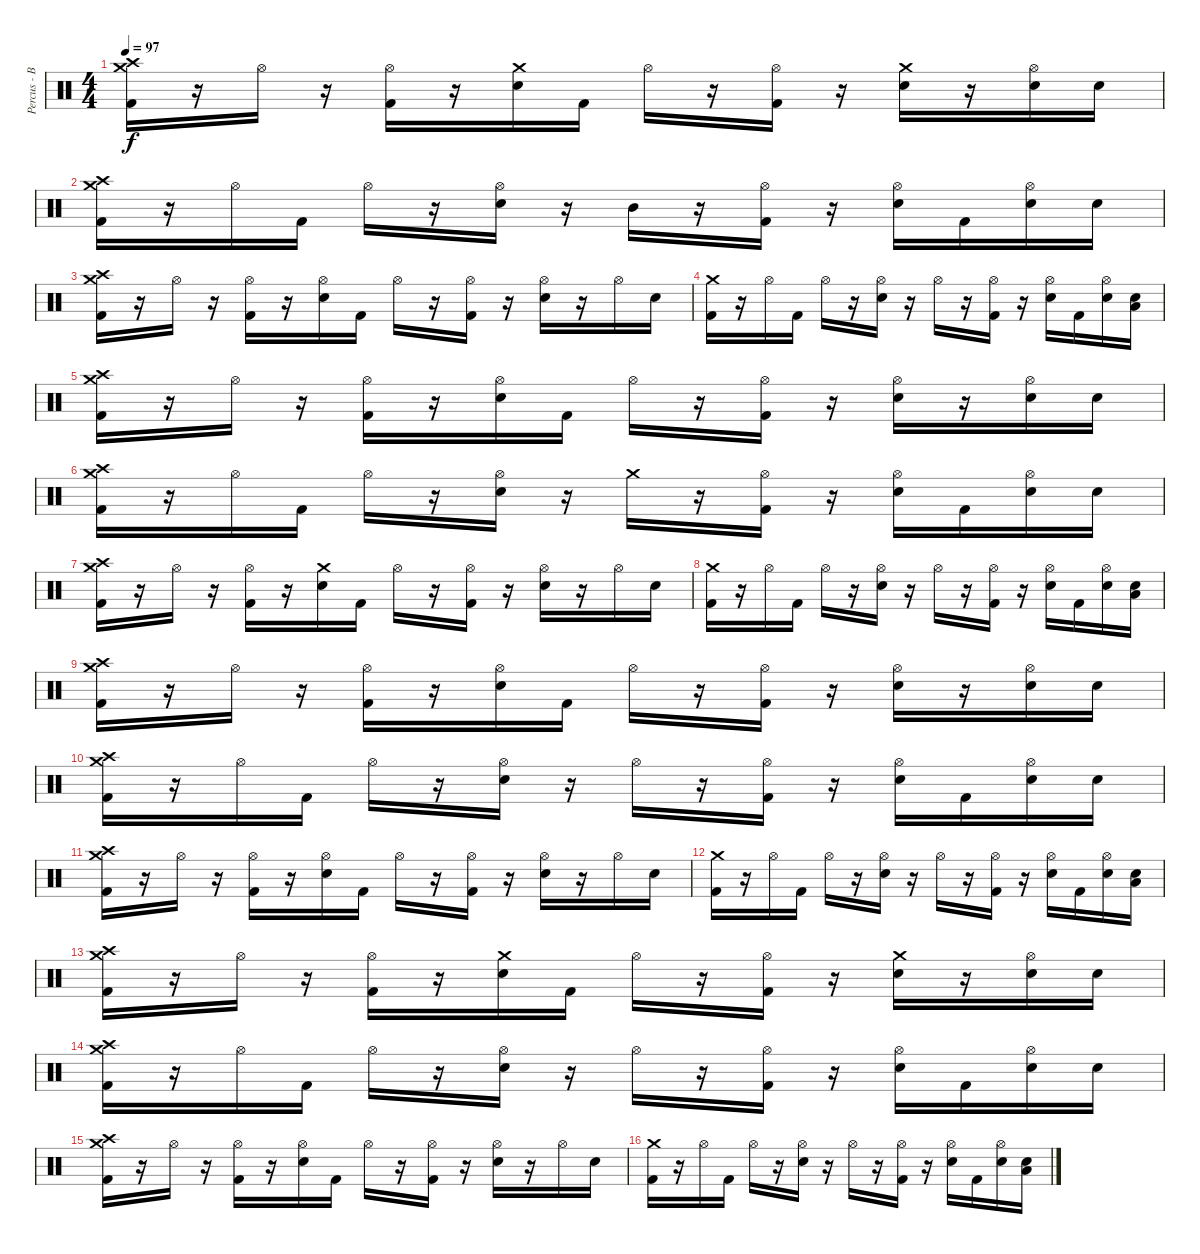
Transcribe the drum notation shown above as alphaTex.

\track ("Percus - Ben" "Percus - B") {instrument percussion}
\staff {score}
\articulation defaults
\ts (4 4)
\tempo 97
\clef neutral
\ks c
("Crash high (hit)" "Crash medium (hit)" "Kick (hit) 2").16{dy f} r.16 "Hi-Hat (open)".16 r.16 ("Hi-Hat (open)" "Kick (hit) 2").16 r.16 ("Crash medium (hit)" "Electric Snare (hit)").16 "Kick (hit) 2".16 "Hi-Hat (open)".16 r.16 ("Hi-Hat (open)" "Kick (hit) 2").16 r.16 ("Crash medium (hit)" "Electric Snare (hit)").16 r.16 ("Hi-Hat (open)" "Electric Snare (hit)").16 "Electric Snare (hit)".16 |
("Crash high (hit)" "Crash medium (hit)" "Kick (hit) 2").16 r.16 "Hi-Hat (open)".16 "Kick (hit) 2".16 "Hi-Hat (open)".16 r.16 ("Hi-Hat (open)" "Electric Snare (hit)").16 r.16 "Mid Tom (hit)".16 r.16 ("Hi-Hat (open)" "Kick (hit) 2").16 r.16 ("Hi-Hat (open)" "Electric Snare (hit)").16 "Kick (hit) 2".16 ("Hi-Hat (open)" "Electric Snare (hit)").16 "Electric Snare (hit)".16 |
("Crash high (hit)" "Crash medium (hit)" "Kick (hit) 2").16 r.16 "Hi-Hat (open)".16 r.16 ("Hi-Hat (open)" "Kick (hit) 2").16 r.16 ("Hi-Hat (open)" "Electric Snare (hit)").16 "Kick (hit) 2".16 "Hi-Hat (open)".16 r.16 ("Hi-Hat (open)" "Kick (hit) 2").16 r.16 ("Hi-Hat (open)" "Electric Snare (hit)").16 r.16 "Hi-Hat (open)".16 "Electric Snare (hit)".16 |
("Crash medium (hit)" "Kick (hit) 2").16 r.16 "Hi-Hat (open)".16 "Kick (hit) 2".16 "Hi-Hat (open)".16 r.16 ("Hi-Hat (open)" "Electric Snare (hit)").16 r.16 "Hi-Hat (open)".16 r.16 ("Hi-Hat (open)" "Kick (hit) 2").16 r.16 ("Hi-Hat (open)" "Electric Snare (hit)").16 "Kick (hit) 2".16 ("Hi-Hat (open)" "Electric Snare (hit)").16 ("Low Tom (hit)" "Electric Snare (hit)").16 |
("Crash high (hit)" "Crash medium (hit)" "Kick (hit) 2").16 r.16 "Hi-Hat (open)".16 r.16 ("Hi-Hat (open)" "Kick (hit) 2").16 r.16 ("Hi-Hat (open)" "Electric Snare (hit)").16 "Kick (hit) 2".16 "Hi-Hat (open)".16 r.16 ("Hi-Hat (open)" "Kick (hit) 2").16 r.16 ("Hi-Hat (open)" "Electric Snare (hit)").16 r.16 ("Hi-Hat (open)" "Electric Snare (hit)").16 "Electric Snare (hit)".16 |
("Crash high (hit)" "Crash medium (hit)" "Kick (hit) 2").16 r.16 "Hi-Hat (open)".16 "Kick (hit) 2".16 "Hi-Hat (open)".16 r.16 ("Hi-Hat (open)" "Electric Snare (hit)").16 r.16 "Crash medium (hit)".16 r.16 ("Hi-Hat (open)" "Kick (hit) 2").16 r.16 ("Hi-Hat (open)" "Electric Snare (hit)").16 "Kick (hit) 2".16 ("Hi-Hat (open)" "Electric Snare (hit)").16 "Electric Snare (hit)".16 |
("Crash high (hit)" "Crash medium (hit)" "Kick (hit) 2").16 r.16 "Hi-Hat (open)".16 r.16 ("Hi-Hat (open)" "Kick (hit) 2").16 r.16 ("Crash medium (hit)" "Electric Snare (hit)").16 "Kick (hit) 2".16 "Hi-Hat (open)".16 r.16 ("Hi-Hat (open)" "Kick (hit) 2").16 r.16 ("Hi-Hat (open)" "Electric Snare (hit)").16 r.16 "Hi-Hat (open)".16 "Electric Snare (hit)".16 |
("Crash medium (hit)" "Kick (hit) 2").16 r.16 "Hi-Hat (open)".16 "Kick (hit) 2".16 "Hi-Hat (open)".16 r.16 ("Hi-Hat (open)" "Electric Snare (hit)").16 r.16 "Hi-Hat (open)".16 r.16 ("Hi-Hat (open)" "Kick (hit) 2").16 r.16 ("Hi-Hat (open)" "Electric Snare (hit)").16 "Kick (hit) 2".16 ("Hi-Hat (open)" "Electric Snare (hit)").16 ("Low Tom (hit)" "Electric Snare (hit)").16 |
("Crash high (hit)" "Crash medium (hit)" "Kick (hit) 2").16 r.16 "Hi-Hat (open)".16 r.16 ("Hi-Hat (open)" "Kick (hit) 2").16 r.16 ("Hi-Hat (open)" "Electric Snare (hit)").16 "Kick (hit) 2".16 "Hi-Hat (open)".16 r.16 ("Hi-Hat (open)" "Kick (hit) 2").16 r.16 ("Hi-Hat (open)" "Electric Snare (hit)").16 r.16 ("Hi-Hat (open)" "Electric Snare (hit)").16 "Electric Snare (hit)".16 |
("Crash high (hit)" "Crash medium (hit)" "Kick (hit) 2").16 r.16 "Hi-Hat (open)".16 "Kick (hit) 2".16 "Hi-Hat (open)".16 r.16 ("Hi-Hat (open)" "Electric Snare (hit)").16 r.16 "Hi-Hat (open)".16 r.16 ("Hi-Hat (open)" "Kick (hit) 2").16 r.16 ("Hi-Hat (open)" "Electric Snare (hit)").16 "Kick (hit) 2".16 ("Hi-Hat (open)" "Electric Snare (hit)").16 "Electric Snare (hit)".16 |
("Crash high (hit)" "Crash medium (hit)" "Kick (hit) 2").16 r.16 "Hi-Hat (open)".16 r.16 ("Hi-Hat (open)" "Kick (hit) 2").16 r.16 ("Hi-Hat (open)" "Electric Snare (hit)").16 "Kick (hit) 2".16 "Hi-Hat (open)".16 r.16 ("Hi-Hat (open)" "Kick (hit) 2").16 r.16 ("Hi-Hat (open)" "Electric Snare (hit)").16 r.16 "Hi-Hat (open)".16 "Electric Snare (hit)".16 |
("Crash medium (hit)" "Kick (hit) 2").16 r.16 "Hi-Hat (open)".16 "Kick (hit) 2".16 "Hi-Hat (open)".16 r.16 ("Hi-Hat (open)" "Electric Snare (hit)").16 r.16 "Hi-Hat (open)".16 r.16 ("Hi-Hat (open)" "Kick (hit) 2").16 r.16 ("Hi-Hat (open)" "Electric Snare (hit)").16 "Kick (hit) 2".16 ("Hi-Hat (open)" "Electric Snare (hit)").16 ("Low Tom (hit)" "Electric Snare (hit)").16 |
("Crash high (hit)" "Crash medium (hit)" "Kick (hit) 2").16 r.16 "Hi-Hat (open)".16 r.16 ("Hi-Hat (open)" "Kick (hit) 2").16 r.16 ("Crash medium (hit)" "Electric Snare (hit)").16 "Kick (hit) 2".16 "Hi-Hat (open)".16 r.16 ("Hi-Hat (open)" "Kick (hit) 2").16 r.16 ("Crash medium (hit)" "Electric Snare (hit)").16 r.16 ("Hi-Hat (open)" "Electric Snare (hit)").16 "Electric Snare (hit)".16 |
("Crash high (hit)" "Crash medium (hit)" "Kick (hit) 2").16 r.16 "Hi-Hat (open)".16 "Kick (hit) 2".16 "Hi-Hat (open)".16 r.16 ("Hi-Hat (open)" "Electric Snare (hit)").16 r.16 "Hi-Hat (open)".16 r.16 ("Hi-Hat (open)" "Kick (hit) 2").16 r.16 ("Hi-Hat (open)" "Electric Snare (hit)").16 "Kick (hit) 2".16 ("Hi-Hat (open)" "Electric Snare (hit)").16 "Electric Snare (hit)".16 |
("Crash high (hit)" "Crash medium (hit)" "Kick (hit) 2").16 r.16 "Hi-Hat (open)".16 r.16 ("Hi-Hat (open)" "Kick (hit) 2").16 r.16 ("Hi-Hat (open)" "Electric Snare (hit)").16 "Kick (hit) 2".16 "Hi-Hat (open)".16 r.16 ("Hi-Hat (open)" "Kick (hit) 2").16 r.16 ("Hi-Hat (open)" "Electric Snare (hit)").16 r.16 "Hi-Hat (open)".16 "Electric Snare (hit)".16 |
("Crash medium (hit)" "Kick (hit) 2").16 r.16 "Hi-Hat (open)".16 "Kick (hit) 2".16 "Hi-Hat (open)".16 r.16 ("Hi-Hat (open)" "Electric Snare (hit)").16 r.16 "Hi-Hat (open)".16 r.16 ("Hi-Hat (open)" "Kick (hit) 2").16 r.16 ("Hi-Hat (open)" "Electric Snare (hit)").16 "Kick (hit) 2".16 ("Hi-Hat (open)" "Electric Snare (hit)").16 ("Low Tom (hit)" "Electric Snare (hit)").16
